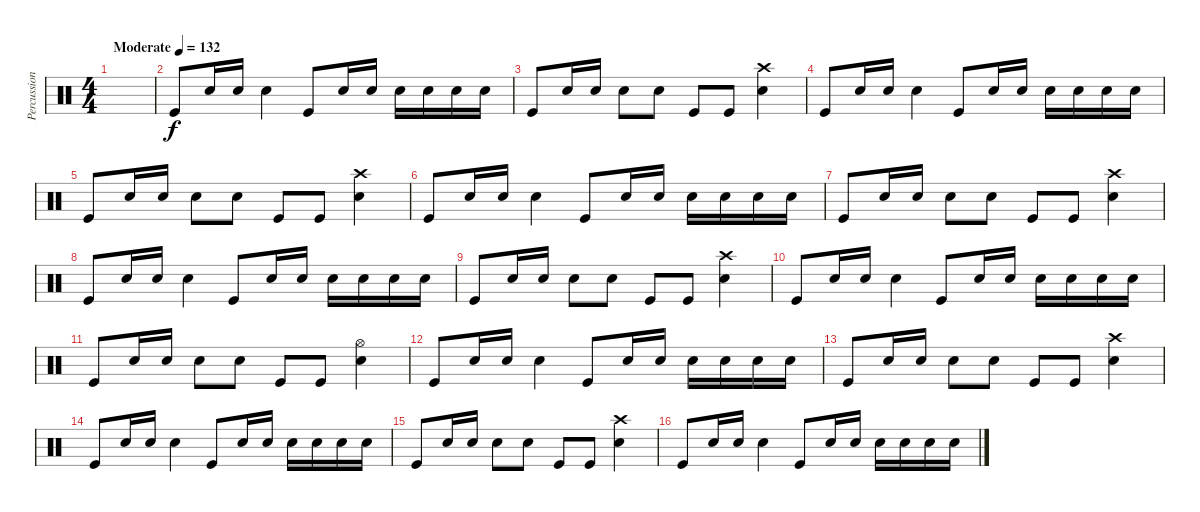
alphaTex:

\track ("Percussion" "Percussion") {instrument percussion}
\staff {score}
\articulation defaults
\ts (4 4)
\tempo (132 "Moderate")
\clef neutral
\ks c
|
"Kick (hit)".8 "Snare (hit) 2".16 "Snare (hit) 2".16 "Snare (hit) 2".4 "Kick (hit)".8 "Snare (hit) 2".16 "Snare (hit) 2".16 "Snare (hit) 2".16 "Snare (hit) 2".16 "Snare (hit) 2".16 "Snare (hit) 2".16 |
"Kick (hit)".8 "Snare (hit) 2".16 "Snare (hit) 2".16 "Snare (hit) 2".8 "Snare (hit) 2".8 "Kick (hit)".8 "Kick (hit)".8 ("Crash high (hit)" "Snare (hit) 2").4 |
"Kick (hit)".8 "Snare (hit) 2".16 "Snare (hit) 2".16 "Snare (hit) 2".4 "Kick (hit)".8 "Snare (hit) 2".16 "Snare (hit) 2".16 "Snare (hit) 2".16 "Snare (hit) 2".16 "Snare (hit) 2".16 "Snare (hit) 2".16 |
"Kick (hit)".8 "Snare (hit) 2".16 "Snare (hit) 2".16 "Snare (hit) 2".8 "Snare (hit) 2".8 "Kick (hit)".8 "Kick (hit)".8 ("Crash high (hit)" "Snare (hit) 2").4 |
"Kick (hit)".8 "Snare (hit) 2".16 "Snare (hit) 2".16 "Snare (hit) 2".4 "Kick (hit)".8 "Snare (hit) 2".16 "Snare (hit) 2".16 "Snare (hit) 2".16 "Snare (hit) 2".16 "Snare (hit) 2".16 "Snare (hit) 2".16 |
"Kick (hit)".8 "Snare (hit) 2".16 "Snare (hit) 2".16 "Snare (hit) 2".8 "Snare (hit) 2".8 "Kick (hit)".8 "Kick (hit)".8 ("Crash high (hit)" "Snare (hit) 2").4 |
"Kick (hit)".8 "Snare (hit) 2".16 "Snare (hit) 2".16 "Snare (hit) 2".4 "Kick (hit)".8 "Snare (hit) 2".16 "Snare (hit) 2".16 "Snare (hit) 2".16 "Snare (hit) 2".16 "Snare (hit) 2".16 "Snare (hit) 2".16 |
"Kick (hit)".8 "Snare (hit) 2".16 "Snare (hit) 2".16 "Snare (hit) 2".8 "Snare (hit) 2".8 "Kick (hit)".8 "Kick (hit)".8 ("Crash high (hit)" "Snare (hit) 2").4 |
"Kick (hit)".8 "Snare (hit) 2".16 "Snare (hit) 2".16 "Snare (hit) 2".4 "Kick (hit)".8 "Snare (hit) 2".16 "Snare (hit) 2".16 "Snare (hit) 2".16 "Snare (hit) 2".16 "Snare (hit) 2".16 "Snare (hit) 2".16 |
"Kick (hit)".8 "Snare (hit) 2".16 "Snare (hit) 2".16 "Snare (hit) 2".8 "Snare (hit) 2".8 "Kick (hit)".8 "Kick (hit)".8 ("Hi-Hat (open)" "Snare (hit) 2").4 |
"Kick (hit)".8 "Snare (hit) 2".16 "Snare (hit) 2".16 "Snare (hit) 2".4 "Kick (hit)".8 "Snare (hit) 2".16 "Snare (hit) 2".16 "Snare (hit) 2".16 "Snare (hit) 2".16 "Snare (hit) 2".16 "Snare (hit) 2".16 |
"Kick (hit)".8 "Snare (hit) 2".16 "Snare (hit) 2".16 "Snare (hit) 2".8 "Snare (hit) 2".8 "Kick (hit)".8 "Kick (hit)".8 ("Crash high (hit)" "Snare (hit) 2").4 |
"Kick (hit)".8 "Snare (hit) 2".16 "Snare (hit) 2".16 "Snare (hit) 2".4 "Kick (hit)".8 "Snare (hit) 2".16 "Snare (hit) 2".16 "Snare (hit) 2".16 "Snare (hit) 2".16 "Snare (hit) 2".16 "Snare (hit) 2".16 |
"Kick (hit)".8 "Snare (hit) 2".16 "Snare (hit) 2".16 "Snare (hit) 2".8 "Snare (hit) 2".8 "Kick (hit)".8 "Kick (hit)".8 ("Crash high (hit)" "Snare (hit) 2").4 |
"Kick (hit)".8 "Snare (hit) 2".16 "Snare (hit) 2".16 "Snare (hit) 2".4 "Kick (hit)".8 "Snare (hit) 2".16 "Snare (hit) 2".16 "Snare (hit) 2".16 "Snare (hit) 2".16 "Snare (hit) 2".16 "Snare (hit) 2".16
